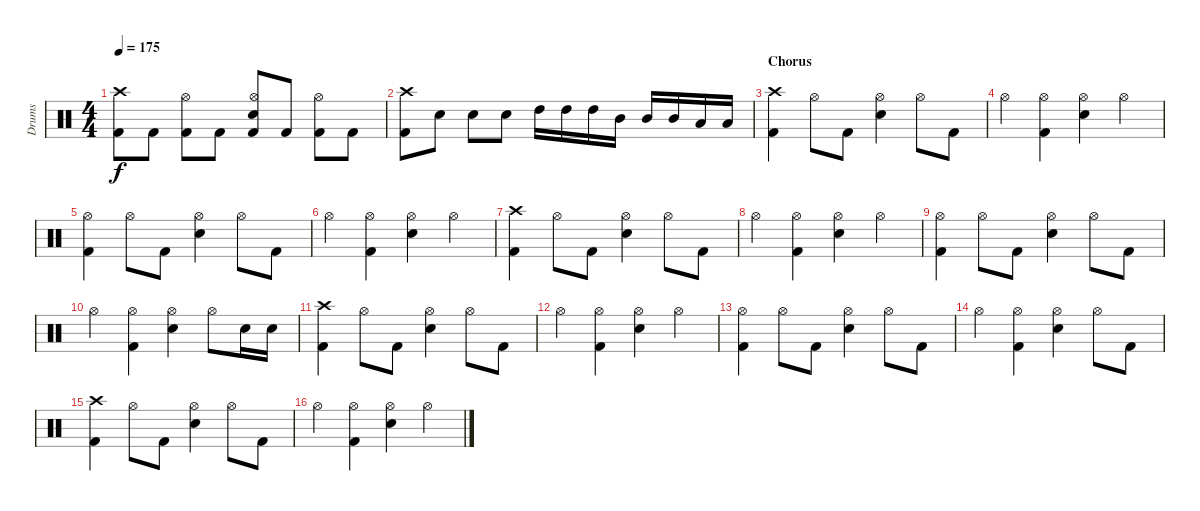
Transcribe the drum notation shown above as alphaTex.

\track ("Drums" "Drums") {instrument percussion}
\staff {score}
\articulation defaults
\ts (4 4)
\section ("" "")
\tempo 175
\clef neutral
\ks c
("Crash high (hit)" "Kick (hit) 2").8{dy f} "Kick (hit) 2".8 ("Hi-Hat (open)" "Kick (hit) 2").8 "Kick (hit) 2".8 ("Hi-Hat (open)" "Electric Snare (hit)" "Kick (hit) 2").8 "Kick (hit) 2".8 ("Hi-Hat (open)" "Kick (hit) 2").8 "Kick (hit) 2".8 |
("Crash high (hit)" "Kick (hit) 2").8 "Electric Snare (hit)".8 "Electric Snare (hit)".8 "Electric Snare (hit)".8 "High Tom (hit)".16 "High Tom (hit)".16 "High Tom (hit)".16 "Mid Tom (hit)".16 "Mid Tom (hit)".16 "Mid Tom (hit)".16 "Low Tom (hit)".16 "Low Tom (hit)".16 |
\section ("" "Chorus")
("Crash high (hit)" "Kick (hit) 2").4 "Hi-Hat (open)".8 "Kick (hit) 2".8 ("Hi-Hat (open)" "Electric Snare (hit)").4 "Hi-Hat (open)".8 "Kick (hit) 2".8 |
"Hi-Hat (open)".4 ("Hi-Hat (open)" "Kick (hit) 2").4 ("Hi-Hat (open)" "Electric Snare (hit)").4 "Hi-Hat (open)".4 |
("Hi-Hat (open)" "Kick (hit) 2").4 "Hi-Hat (open)".8 "Kick (hit) 2".8 ("Hi-Hat (open)" "Electric Snare (hit)").4 "Hi-Hat (open)".8 "Kick (hit) 2".8 |
"Hi-Hat (open)".4 ("Hi-Hat (open)" "Kick (hit) 2").4 ("Hi-Hat (open)" "Electric Snare (hit)").4 "Hi-Hat (open)".4 |
("Crash high (hit)" "Kick (hit) 2").4 "Hi-Hat (open)".8 "Kick (hit) 2".8 ("Hi-Hat (open)" "Electric Snare (hit)").4 "Hi-Hat (open)".8 "Kick (hit) 2".8 |
"Hi-Hat (open)".4 ("Hi-Hat (open)" "Kick (hit) 2").4 ("Hi-Hat (open)" "Electric Snare (hit)").4 "Hi-Hat (open)".4 |
("Hi-Hat (open)" "Kick (hit) 2").4 "Hi-Hat (open)".8 "Kick (hit) 2".8 ("Hi-Hat (open)" "Electric Snare (hit)").4 "Hi-Hat (open)".8 "Kick (hit) 2".8 |
"Hi-Hat (open)".4 ("Hi-Hat (open)" "Kick (hit) 2").4 ("Hi-Hat (open)" "Electric Snare (hit)").4 "Hi-Hat (open)".8 "Electric Snare (hit)".16 "Electric Snare (hit)".16 |
("Crash high (hit)" "Kick (hit) 2").4 "Hi-Hat (open)".8 "Kick (hit) 2".8 ("Hi-Hat (open)" "Electric Snare (hit)").4 "Hi-Hat (open)".8 "Kick (hit) 2".8 |
"Hi-Hat (open)".4 ("Hi-Hat (open)" "Kick (hit) 2").4 ("Hi-Hat (open)" "Electric Snare (hit)").4 "Hi-Hat (open)".4 |
("Hi-Hat (open)" "Kick (hit) 2").4 "Hi-Hat (open)".8 "Kick (hit) 2".8 ("Hi-Hat (open)" "Electric Snare (hit)").4 "Hi-Hat (open)".8 "Kick (hit) 2".8 |
"Hi-Hat (open)".4 ("Hi-Hat (open)" "Kick (hit) 2").4 ("Hi-Hat (open)" "Electric Snare (hit)").4 "Hi-Hat (open)".8 "Kick (hit) 2".8 |
("Crash high (hit)" "Kick (hit) 2").4 "Hi-Hat (open)".8 "Kick (hit) 2".8 ("Hi-Hat (open)" "Electric Snare (hit)").4 "Hi-Hat (open)".8 "Kick (hit) 2".8 |
"Hi-Hat (open)".4 ("Hi-Hat (open)" "Kick (hit) 2").4 ("Hi-Hat (open)" "Electric Snare (hit)").4 "Hi-Hat (open)".4
